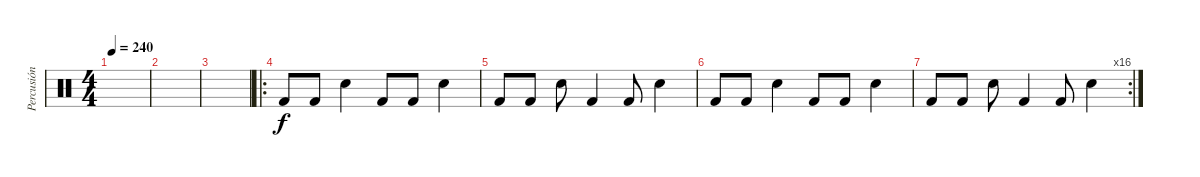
\track ("Percusión" "Percusión") {instrument percussion}
\staff {score}
\articulation defaults
\ts (4 4)
\tempo 240
\clef neutral
\ks c
|
|
|
\ro "Kick (hit) 2".8 "Kick (hit) 2".8 "Electric Snare (hit)".4 "Kick (hit) 2".8 "Kick (hit) 2".8 "Electric Snare (hit)".4
|
"Kick (hit) 2".8 "Kick (hit) 2".8 "Electric Snare (hit)".8 "Kick (hit) 2".4 "Kick (hit) 2".8 "Electric Snare (hit)".4 |
"Kick (hit) 2".8 "Kick (hit) 2".8 "Electric Snare (hit)".4 "Kick (hit) 2".8 "Kick (hit) 2".8 "Electric Snare (hit)".4 |
\rc 16 "Kick (hit) 2".8 "Kick (hit) 2".8 "Electric Snare (hit)".8 "Kick (hit) 2".4 "Kick (hit) 2".8 "Electric Snare (hit)".4
